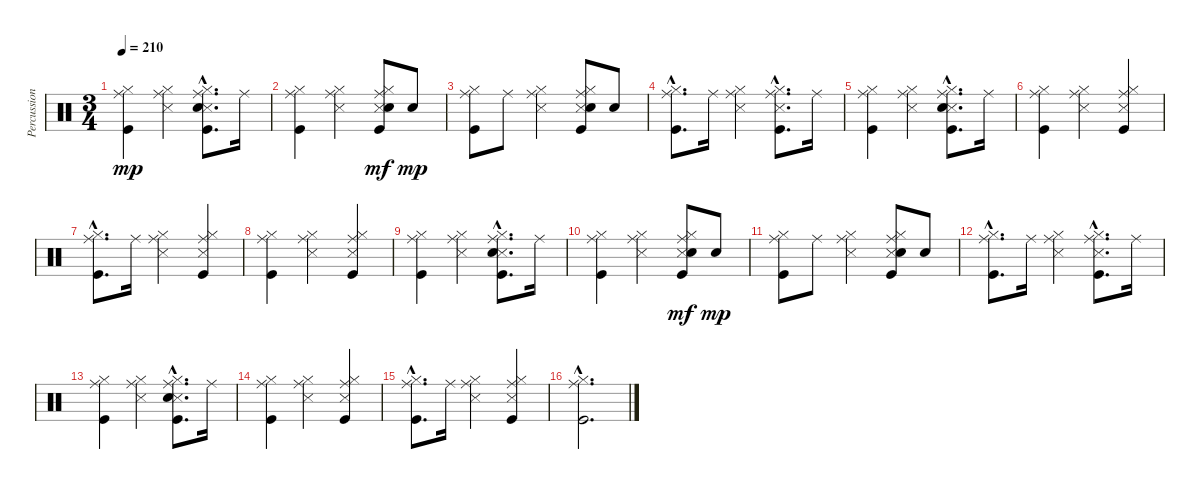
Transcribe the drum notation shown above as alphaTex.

\track ("Percussion" "Percussion") {instrument percussion}
\staff {score}
\articulation defaults
\ts (3 4)
\tempo 210
\clef neutral
\ks c
("Kick (hit)" "Hi-Hat (closed)" "Ride (middle)").4{dy mp} ("Snare (side stick) 3" "Hi-Hat (closed)" "Ride (middle)").4 ("Kick (hit)"{hac} "Snare (side stick) 3"{hac} "Snare (hit) 2"{hac} "Hi-Hat (closed)"{hac} "Ride (middle)"{hac}).8{d} "Ride (middle)".16 |
("Kick (hit)" "Hi-Hat (closed)" "Ride (middle)").4 ("Snare (side stick) 3" "Hi-Hat (closed)" "Ride (middle)").4 ("Kick (hit)" "Snare (side stick) 3" "Snare (hit) 2" "Hi-Hat (closed)" "Ride (middle)").8{dy mf} "Snare (hit) 2".8{dy mp} |
("Kick (hit)" "Hi-Hat (closed)" "Ride (middle)").8 "Ride (middle)".8 ("Snare (side stick) 3" "Hi-Hat (closed)" "Ride (middle)").4 ("Kick (hit)" "Snare (side stick) 3" "Snare (hit) 2" "Hi-Hat (closed)" "Ride (middle)").8 "Snare (hit) 2".8 |
("Kick (hit)"{hac} "Hi-Hat (closed)"{hac} "Ride (middle)"{hac}).8{d} "Ride (middle)".16 ("Snare (side stick) 3" "Hi-Hat (closed)" "Ride (middle)").4 ("Kick (hit)"{hac} "Snare (side stick) 3"{hac} "Hi-Hat (closed)"{hac} "Ride (middle)"{hac}).8{d} "Ride (middle)".16 |
("Kick (hit)" "Hi-Hat (closed)" "Ride (middle)").4 ("Snare (side stick) 3" "Hi-Hat (closed)" "Ride (middle)").4 ("Kick (hit)"{hac} "Snare (side stick) 3"{hac} "Snare (hit) 2"{hac} "Hi-Hat (closed)"{hac} "Ride (middle)"{hac}).8{d} "Ride (middle)".16 |
("Kick (hit)" "Hi-Hat (closed)" "Ride (middle)").4 ("Snare (side stick) 3" "Hi-Hat (closed)" "Ride (middle)").4 ("Kick (hit)" "Snare (side stick) 3" "Hi-Hat (closed)" "Ride (middle)").4 |
("Kick (hit)"{hac} "Hi-Hat (closed)"{hac} "Ride (middle)"{hac}).8{d} "Ride (middle)".16 ("Snare (side stick) 3" "Hi-Hat (closed)" "Ride (middle)").4 ("Kick (hit)" "Snare (side stick) 3" "Hi-Hat (closed)" "Ride (middle)").4 |
("Kick (hit)" "Hi-Hat (closed)" "Ride (middle)").4 ("Snare (side stick) 3" "Hi-Hat (closed)" "Ride (middle)").4 ("Kick (hit)" "Snare (side stick) 3" "Hi-Hat (closed)" "Ride (middle)").4 |
("Kick (hit)" "Hi-Hat (closed)" "Ride (middle)").4 ("Snare (side stick) 3" "Hi-Hat (closed)" "Ride (middle)").4 ("Kick (hit)"{hac} "Snare (side stick) 3"{hac} "Snare (hit) 2"{hac} "Hi-Hat (closed)"{hac} "Ride (middle)"{hac}).8{d} "Ride (middle)".16 |
("Kick (hit)" "Hi-Hat (closed)" "Ride (middle)").4 ("Snare (side stick) 3" "Hi-Hat (closed)" "Ride (middle)").4 ("Kick (hit)" "Snare (side stick) 3" "Snare (hit) 2" "Hi-Hat (closed)" "Ride (middle)").8{dy mf} "Snare (hit) 2".8{dy mp} |
("Kick (hit)" "Hi-Hat (closed)" "Ride (middle)").8 "Ride (middle)".8 ("Snare (side stick) 3" "Hi-Hat (closed)" "Ride (middle)").4 ("Kick (hit)" "Snare (side stick) 3" "Snare (hit) 2" "Hi-Hat (closed)" "Ride (middle)").8 "Snare (hit) 2".8 |
("Kick (hit)"{hac} "Hi-Hat (closed)"{hac} "Ride (middle)"{hac}).8{d} "Ride (middle)".16 ("Snare (side stick) 3" "Hi-Hat (closed)" "Ride (middle)").4 ("Kick (hit)"{hac} "Snare (side stick) 3"{hac} "Hi-Hat (closed)"{hac} "Ride (middle)"{hac}).8{d} "Ride (middle)".16 |
("Kick (hit)" "Hi-Hat (closed)" "Ride (middle)").4 ("Snare (side stick) 3" "Hi-Hat (closed)" "Ride (middle)").4 ("Kick (hit)"{hac} "Snare (side stick) 3"{hac} "Snare (hit) 2"{hac} "Hi-Hat (closed)"{hac} "Ride (middle)"{hac}).8{d} "Ride (middle)".16 |
("Kick (hit)" "Hi-Hat (closed)" "Ride (middle)").4 ("Snare (side stick) 3" "Hi-Hat (closed)" "Ride (middle)").4 ("Kick (hit)" "Snare (side stick) 3" "Hi-Hat (closed)" "Ride (middle)").4 |
("Kick (hit)"{hac} "Hi-Hat (closed)"{hac} "Ride (middle)"{hac}).8{d} "Ride (middle)".16 ("Snare (side stick) 3" "Hi-Hat (closed)" "Ride (middle)").4 ("Kick (hit)" "Snare (side stick) 3" "Hi-Hat (closed)" "Ride (middle)").4 |
("Kick (hit)"{hac} "Hi-Hat (closed)"{hac} "Ride (middle)"{hac}).2{d}
